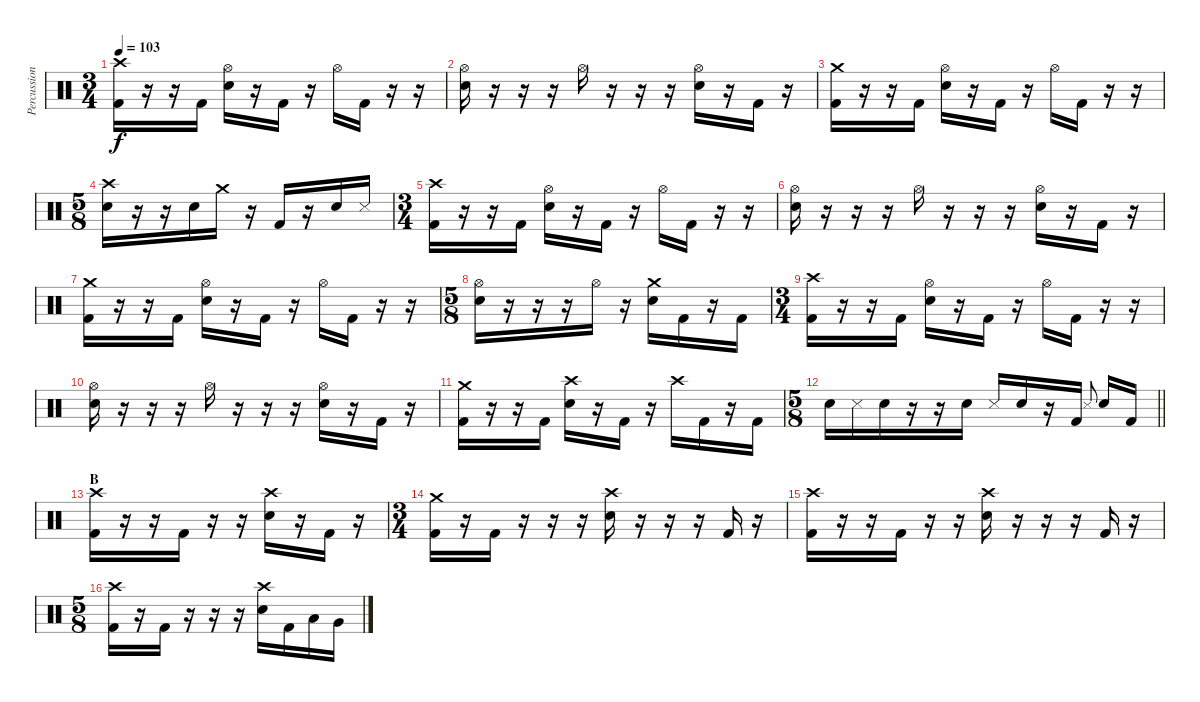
\track ("Percussion" "Percussion") {instrument percussion}
\staff {score}
\articulation defaults
\ts (3 4)
\tempo 103
\clef neutral
\ks c
("Crash high (hit)" "Kick (hit) 2").16{dy f} r.16 r.16 "Kick (hit) 2".16 ("Hi-Hat (open)" "Snare (hit) 2").16 r.16 "Kick (hit) 2".16 r.16 "Hi-Hat (open)".16 "Kick (hit) 2".16 r.16 r.16 |
("Hi-Hat (open)" "Snare (hit) 2").16 r.16 r.16 r.16 "Hi-Hat (open)".16 r.16 r.16 r.16 ("Hi-Hat (open)" "Snare (hit) 2").16 r.16 "Kick (hit) 2".16 r.16 |
("Crash medium (hit)" "Kick (hit) 2").16 r.16 r.16 "Kick (hit) 2".16 ("Hi-Hat (open)" "Snare (hit) 2").16 r.16 "Kick (hit) 2".16 r.16 "Hi-Hat (open)".16 "Kick (hit) 2".16 r.16 r.16 |
\ts (5 8)
("Crash high (hit)" "Snare (hit) 2").16 r.16 r.16 "Snare (hit) 2".16 "Crash medium (hit)".16 r.16 "Kick (hit) 2".16 r.16 "Snare (hit) 2".16 "Metronome (hit)".16 |
\ts (3 4)
("Crash high (hit)" "Kick (hit) 2").16 r.16 r.16 "Kick (hit) 2".16 ("Hi-Hat (open)" "Snare (hit) 2").16 r.16 "Kick (hit) 2".16 r.16 "Hi-Hat (open)".16 "Kick (hit) 2".16 r.16 r.16 |
("Hi-Hat (open)" "Snare (hit) 2").16 r.16 r.16 r.16 "Hi-Hat (open)".16 r.16 r.16 r.16 ("Hi-Hat (open)" "Snare (hit) 2").16 r.16 "Kick (hit) 2".16 r.16 |
("Crash medium (hit)" "Kick (hit) 2").16 r.16 r.16 "Kick (hit) 2".16 ("Hi-Hat (open)" "Snare (hit) 2").16 r.16 "Kick (hit) 2".16 r.16 "Hi-Hat (open)".16 "Kick (hit) 2".16 r.16 r.16 |
\ts (5 8)
("Hi-Hat (open)" "Snare (hit) 2").16 r.16 r.16 r.16 "Hi-Hat (open)".16 r.16 ("Crash medium (hit)" "Snare (hit) 2").16 "Kick (hit) 2".16 r.16 "Kick (hit) 2".16 |
\ts (3 4)
("Crash high (hit)" "Kick (hit) 2").16 r.16 r.16 "Kick (hit) 2".16 ("Hi-Hat (open)" "Snare (hit) 2").16 r.16 "Kick (hit) 2".16 r.16 "Hi-Hat (open)".16 "Kick (hit) 2".16 r.16 r.16 |
("Hi-Hat (open)" "Snare (hit) 2").16 r.16 r.16 r.16 "Hi-Hat (open)".16 r.16 r.16 r.16 ("Hi-Hat (open)" "Snare (hit) 2").16 r.16 "Kick (hit) 2".16 r.16 |
("Crash medium (hit)" "Kick (hit) 2").16 r.16 r.16 "Kick (hit) 2".16 ("Crash high (hit)" "Snare (hit) 2").16 r.16 "Kick (hit) 2".16 r.16 "Crash high (hit)".16 "Kick (hit) 2".16 r.16 "Kick (hit) 2".16 |
\ts (5 8)
\barLineRight lightlight "Snare (hit) 2".16 "Metronome (hit)".16 "Snare (hit) 2".16
r.16 r.16 "Snare (hit) 2".16 "Metronome (hit)".16 "Snare (hit) 2".16 r.16 "Kick (hit) 2".16 "Metronome (hit)".8{gr onbeat} "Snare (hit) 2".16 "Kick (hit) 2".16 |
\section ("" "B")
("Crash high (hit)" "Kick (hit) 2").16 r.16 r.16 "Kick (hit) 2".16 r.16 r.16 ("Crash high (hit)" "Snare (hit) 2").16 r.16 "Kick (hit) 2".16 r.16 |
\ts (3 4)
("Crash medium (hit)" "Kick (hit) 2").16 r.16 "Kick (hit) 2".16 r.16 r.16 r.16 ("Crash high (hit)" "Snare (hit) 2").16 r.16 r.16 r.16 "Kick (hit) 2".16 r.16 |
("Crash high (hit)" "Kick (hit) 2").16 r.16 r.16 "Kick (hit) 2".16 r.16 r.16 ("Crash high (hit)" "Snare (hit) 2").16 r.16 r.16 r.16 "Kick (hit) 2".16 r.16 |
\ts (5 8)
("Crash high (hit)" "Kick (hit) 2").16 r.16 "Kick (hit) 2".16 r.16 r.16 r.16 ("Crash high (hit)" "Snare (hit) 2").16 "Kick (hit) 2".16 "Low Tom (hit)".16 "Very Low Tom (hit)".16
